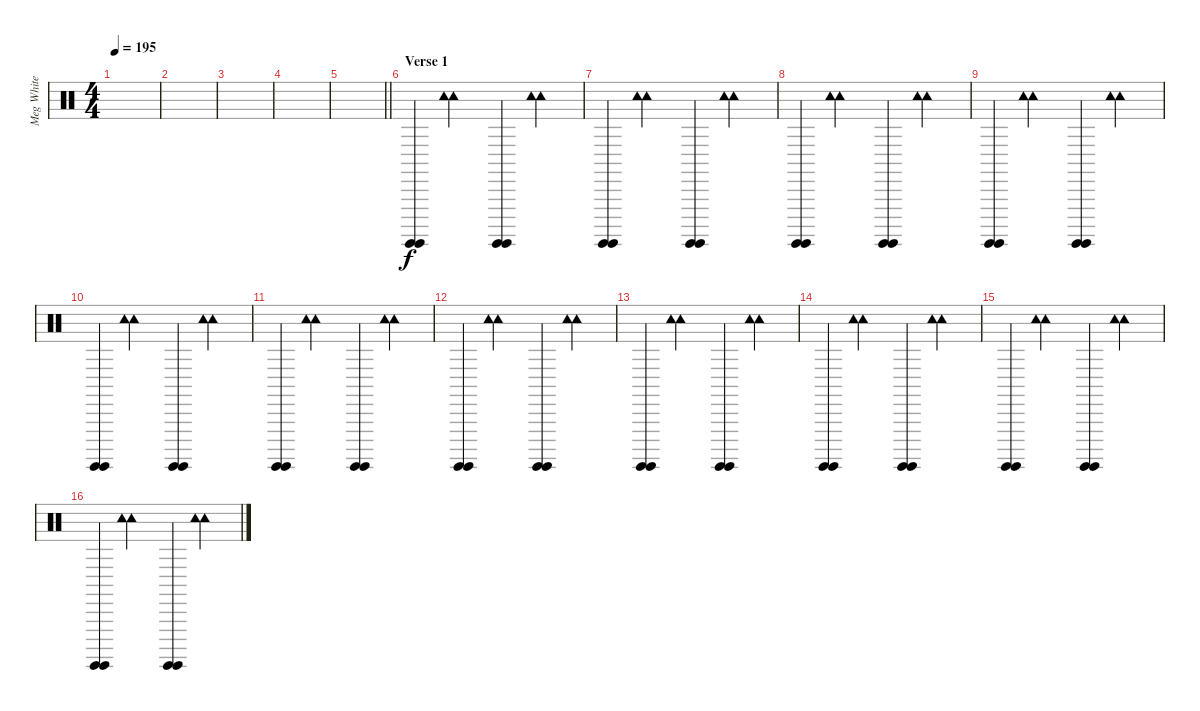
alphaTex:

\track ("Meg White" "Meg White") {instrument percussion}
\staff {score}
\articulation defaults
\ts (4 4)
\tempo 195
\clef neutral
\ks c
|
|
|
|
\barLineRight lightlight
|
\section ("" "Verse 1")
("Surdo (hit)" "Surdo (hit)").4 ("Tambourine (hit)" "Tambourine (hit)").4 ("Surdo (hit)" "Surdo (hit)").4 ("Tambourine (hit)" "Tambourine (hit)").4 |
("Surdo (hit)" "Surdo (hit)").4 ("Tambourine (hit)" "Tambourine (hit)").4 ("Surdo (hit)" "Surdo (hit)").4 ("Tambourine (hit)" "Tambourine (hit)").4 |
("Surdo (hit)" "Surdo (hit)").4 ("Tambourine (hit)" "Tambourine (hit)").4 ("Surdo (hit)" "Surdo (hit)").4 ("Tambourine (hit)" "Tambourine (hit)").4 |
("Surdo (hit)" "Surdo (hit)").4 ("Tambourine (hit)" "Tambourine (hit)").4 ("Surdo (hit)" "Surdo (hit)").4 ("Tambourine (hit)" "Tambourine (hit)").4 |
("Surdo (hit)" "Surdo (hit)").4 ("Tambourine (hit)" "Tambourine (hit)").4 ("Surdo (hit)" "Surdo (hit)").4 ("Tambourine (hit)" "Tambourine (hit)").4 |
("Surdo (hit)" "Surdo (hit)").4 ("Tambourine (hit)" "Tambourine (hit)").4 ("Surdo (hit)" "Surdo (hit)").4 ("Tambourine (hit)" "Tambourine (hit)").4 |
("Surdo (hit)" "Surdo (hit)").4 ("Tambourine (hit)" "Tambourine (hit)").4 ("Surdo (hit)" "Surdo (hit)").4 ("Tambourine (hit)" "Tambourine (hit)").4 |
("Surdo (hit)" "Surdo (hit)").4 ("Tambourine (hit)" "Tambourine (hit)").4 ("Surdo (hit)" "Surdo (hit)").4 ("Tambourine (hit)" "Tambourine (hit)").4 |
("Surdo (hit)" "Surdo (hit)").4 ("Tambourine (hit)" "Tambourine (hit)").4 ("Surdo (hit)" "Surdo (hit)").4 ("Tambourine (hit)" "Tambourine (hit)").4 |
("Surdo (hit)" "Surdo (hit)").4 ("Tambourine (hit)" "Tambourine (hit)").4 ("Surdo (hit)" "Surdo (hit)").4 ("Tambourine (hit)" "Tambourine (hit)").4 |
("Surdo (hit)" "Surdo (hit)").4 ("Tambourine (hit)" "Tambourine (hit)").4 ("Surdo (hit)" "Surdo (hit)").4 ("Tambourine (hit)" "Tambourine (hit)").4
